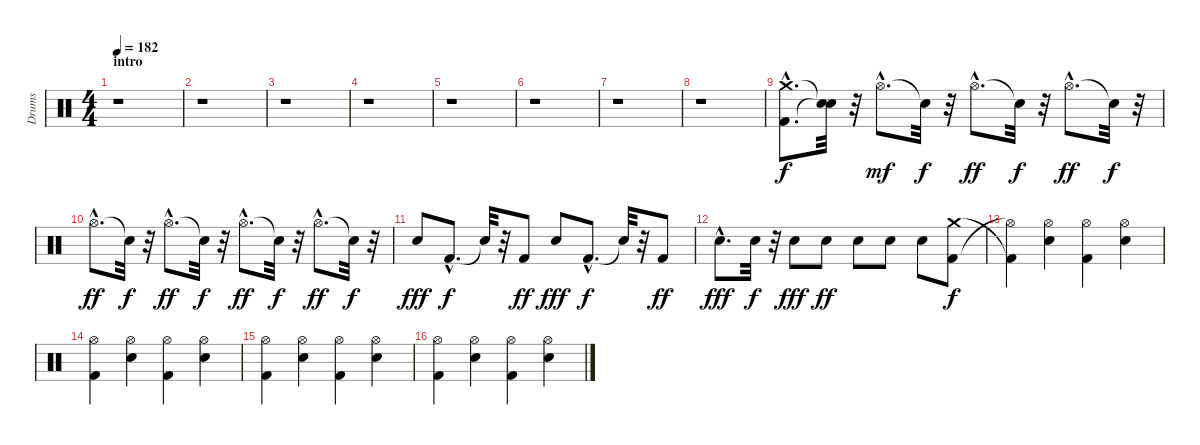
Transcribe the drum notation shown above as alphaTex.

\track ("Drums" "Drums") {instrument percussion}
\staff {score}
\articulation defaults
\ts (4 4)
\section ("" "intro")
\tempo 182
\clef neutral
\ks c
r.1{dy f} |
r.1 |
r.1 |
r.1 |
r.1 |
r.1 |
r.1 |
r.1 |
("Kick (hit) 2"{hac} "Crash medium (hit)"{hac}).8{d} ("Snare (hit)"{t} "Snare (hit)"{t}).32 r.32 "Hi-Hat (open)"{hac}.8{d dy mf} "Snare (hit)"{t}.32{dy f} r.32 "Hi-Hat (open)"{hac}.8{d dy ff} "Snare (hit)"{t}.32{dy f} r.32 "Hi-Hat (open)"{hac}.8{d dy ff} "Snare (hit)"{t}.32{dy f} r.32 |
"Hi-Hat (open)"{hac}.8{d dy ff} "Snare (hit)"{t}.32{dy f} r.32 "Hi-Hat (open)"{hac}.8{d dy ff} "Snare (hit)"{t}.32{dy f} r.32 "Hi-Hat (open)"{hac}.8{d dy ff} "Snare (hit)"{t}.32{dy f} r.32 "Hi-Hat (open)"{hac}.8{d dy ff} "Snare (hit)"{t}.32{dy f} r.32 |
"Snare (hit) 2".8{dy fff} "Kick (hit) 2"{hac}.8{d dy f} "Snare (hit)"{t}.32 r.32 "Kick (hit) 2".8{dy ff} "Snare (hit) 2".8{dy fff} "Kick (hit) 2"{hac}.8{d dy f} "Snare (hit)"{t}.32 r.32 "Kick (hit) 2".8{dy ff} |
"Snare (hit) 2"{hac}.8{d dy fff} "Snare (hit) 2".32{dy f} r.32 "Snare (hit) 2".8{dy fff} "Snare (hit) 2".8{dy ff} "Snare (hit) 2".8 "Snare (hit) 2".8 "Snare (hit) 2".8 ("Kick (hit) 2" "Crash medium (hit)").8{dy f} |
("Hi-Hat (open)"{t} "Kick (hit) 2"{t}).4 ("Snare (hit) 2" "Hi-Hat (open)").4 ("Kick (hit) 2" "Hi-Hat (open)").4 ("Snare (hit) 2" "Hi-Hat (open)").4 |
("Kick (hit) 2" "Hi-Hat (open)").4 ("Snare (hit) 2" "Hi-Hat (open)").4 ("Kick (hit) 2" "Hi-Hat (open)").4 ("Snare (hit) 2" "Hi-Hat (open)").4 |
("Kick (hit) 2" "Hi-Hat (open)").4 ("Snare (hit) 2" "Hi-Hat (open)").4 ("Kick (hit) 2" "Hi-Hat (open)").4 ("Snare (hit) 2" "Hi-Hat (open)").4 |
("Kick (hit) 2" "Hi-Hat (open)").4 ("Snare (hit) 2" "Hi-Hat (open)").4 ("Kick (hit) 2" "Hi-Hat (open)").4 ("Snare (hit) 2" "Hi-Hat (open)").4
